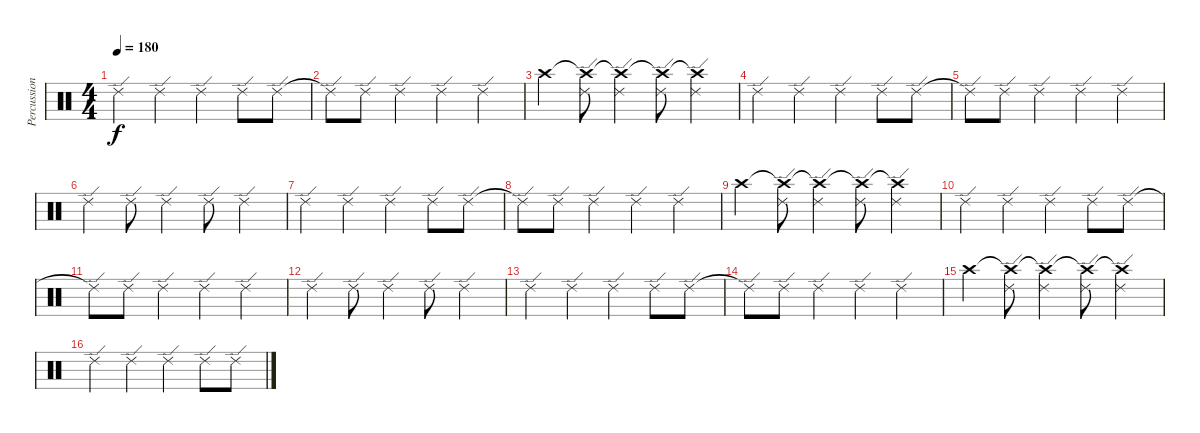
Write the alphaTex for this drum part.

\track ("Percussion" "Percussion") {instrument percussion}
\staff {score}
\articulation defaults
\ts (4 4)
\tempo 180
\clef neutral
\ks c "Ride (edge) 2".4{dy f} "Ride (edge) 2".4 "Ride (edge) 2".4 "Ride (edge) 2".8 "Ride (edge) 2".8
|
"Ride (edge) 2"{t}.8 "Ride (edge) 2".8 "Ride (edge) 2".4 "Ride (edge) 2".4 "Ride (edge) 2".4 |
"Crash high (hit)".4 ("Crash high (hit)"{t} "Ride (edge) 2").8 ("Crash high (hit)"{t} "Ride (edge) 2").4 ("Crash high (hit)"{t} "Ride (edge) 2").8 ("Crash high (hit)"{t} "Ride (edge) 2").4 |
"Ride (edge) 2".4 "Ride (edge) 2".4 "Ride (edge) 2".4 "Ride (edge) 2".8 "Ride (edge) 2".8 |
"Ride (edge) 2"{t}.8 "Ride (edge) 2".8 "Ride (edge) 2".4 "Ride (edge) 2".4 "Ride (edge) 2".4 |
"Ride (edge) 2".4 "Ride (edge) 2".8 "Ride (edge) 2".4 "Ride (edge) 2".8 "Ride (edge) 2".4 |
"Ride (edge) 2".4 "Ride (edge) 2".4 "Ride (edge) 2".4 "Ride (edge) 2".8 "Ride (edge) 2".8 |
"Ride (edge) 2"{t}.8 "Ride (edge) 2".8 "Ride (edge) 2".4 "Ride (edge) 2".4 "Ride (edge) 2".4 |
"Crash high (hit)".4 ("Crash high (hit)"{t} "Ride (edge) 2").8 ("Crash high (hit)"{t} "Ride (edge) 2").4 ("Crash high (hit)"{t} "Ride (edge) 2").8 ("Crash high (hit)"{t} "Ride (edge) 2").4 |
"Ride (edge) 2".4 "Ride (edge) 2".4 "Ride (edge) 2".4 "Ride (edge) 2".8 "Ride (edge) 2".8 |
"Ride (edge) 2"{t}.8 "Ride (edge) 2".8 "Ride (edge) 2".4 "Ride (edge) 2".4 "Ride (edge) 2".4 |
"Ride (edge) 2".4 "Ride (edge) 2".8 "Ride (edge) 2".4 "Ride (edge) 2".8 "Ride (edge) 2".4 |
"Ride (edge) 2".4 "Ride (edge) 2".4 "Ride (edge) 2".4 "Ride (edge) 2".8 "Ride (edge) 2".8 |
"Ride (edge) 2"{t}.8 "Ride (edge) 2".8 "Ride (edge) 2".4 "Ride (edge) 2".4 "Ride (edge) 2".4 |
"Crash high (hit)".4 ("Crash high (hit)"{t} "Ride (edge) 2").8 ("Crash high (hit)"{t} "Ride (edge) 2").4 ("Crash high (hit)"{t} "Ride (edge) 2").8 ("Crash high (hit)"{t} "Ride (edge) 2").4 |
"Ride (edge) 2".4 "Ride (edge) 2".4 "Ride (edge) 2".4 "Ride (edge) 2".8 "Ride (edge) 2".8
